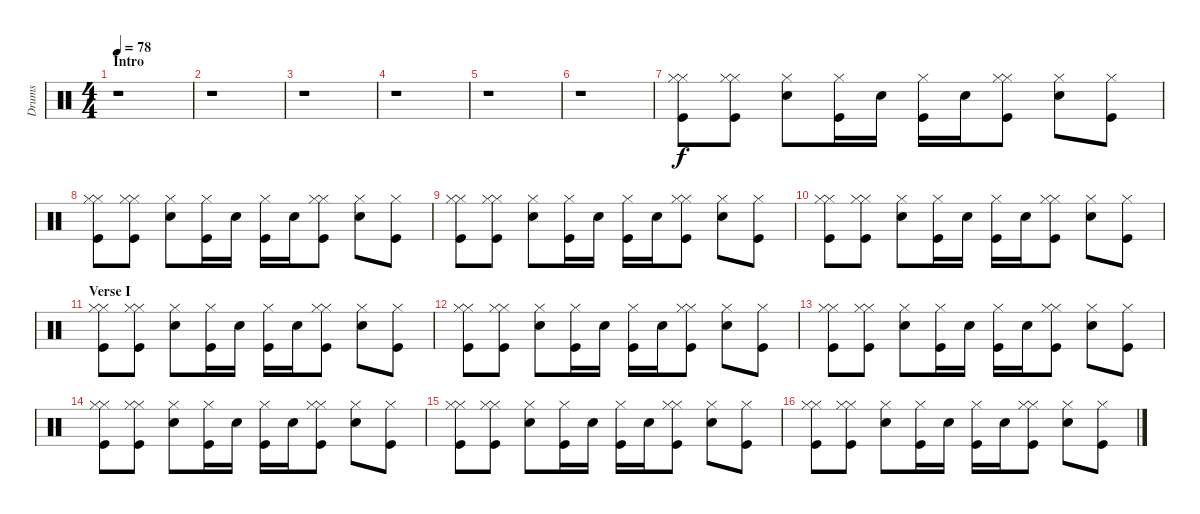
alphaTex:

\track ("Drums" "Drums") {instrument percussion}
\staff {score}
\articulation defaults
\ts (4 4)
\section ("" "Intro")
\tempo 78
\clef neutral
\ks c
r.1{dy f} |
r.1 |
r.1 |
r.1 |
r.1 |
r.1 |
("Hi-Hat (closed)" "Hi-Hat (closed)" "Kick (hit)").8 ("Hi-Hat (closed)" "Hi-Hat (closed)" "Kick (hit)").8 ("Snare (hit) 2" "Hi-Hat (closed)").8 ("Hi-Hat (closed)" "Kick (hit)").16 "Snare (hit) 2".16 ("Hi-Hat (closed)" "Kick (hit)").16 "Snare (hit) 2".16 ("Hi-Hat (closed)" "Hi-Hat (closed)" "Kick (hit)").8 ("Snare (hit) 2" "Hi-Hat (closed)").8 ("Hi-Hat (closed)" "Kick (hit)").8 |
("Hi-Hat (closed)" "Hi-Hat (closed)" "Kick (hit)").8 ("Hi-Hat (closed)" "Hi-Hat (closed)" "Kick (hit)").8 ("Snare (hit) 2" "Hi-Hat (closed)").8 ("Hi-Hat (closed)" "Kick (hit)").16 "Snare (hit) 2".16 ("Hi-Hat (closed)" "Kick (hit)").16 "Snare (hit) 2".16 ("Hi-Hat (closed)" "Hi-Hat (closed)" "Kick (hit)").8 ("Snare (hit) 2" "Hi-Hat (closed)").8 ("Hi-Hat (closed)" "Kick (hit)").8 |
("Hi-Hat (closed)" "Hi-Hat (closed)" "Kick (hit)").8 ("Hi-Hat (closed)" "Hi-Hat (closed)" "Kick (hit)").8 ("Snare (hit) 2" "Hi-Hat (closed)").8 ("Hi-Hat (closed)" "Kick (hit)").16 "Snare (hit) 2".16 ("Hi-Hat (closed)" "Kick (hit)").16 "Snare (hit) 2".16 ("Hi-Hat (closed)" "Hi-Hat (closed)" "Kick (hit)").8 ("Snare (hit) 2" "Hi-Hat (closed)").8 ("Hi-Hat (closed)" "Kick (hit)").8 |
("Hi-Hat (closed)" "Hi-Hat (closed)" "Kick (hit)").8 ("Hi-Hat (closed)" "Hi-Hat (closed)" "Kick (hit)").8 ("Snare (hit) 2" "Hi-Hat (closed)").8 ("Hi-Hat (closed)" "Kick (hit)").16 "Snare (hit) 2".16 ("Hi-Hat (closed)" "Kick (hit)").16 "Snare (hit) 2".16 ("Hi-Hat (closed)" "Hi-Hat (closed)" "Kick (hit)").8 ("Snare (hit) 2" "Hi-Hat (closed)").8 ("Hi-Hat (closed)" "Kick (hit)").8 |
\section ("" "Verse I")
("Hi-Hat (closed)" "Hi-Hat (closed)" "Kick (hit)").8 ("Hi-Hat (closed)" "Hi-Hat (closed)" "Kick (hit)").8 ("Snare (hit) 2" "Hi-Hat (closed)").8 ("Hi-Hat (closed)" "Kick (hit)").16 "Snare (hit) 2".16 ("Hi-Hat (closed)" "Kick (hit)").16 "Snare (hit) 2".16 ("Hi-Hat (closed)" "Hi-Hat (closed)" "Kick (hit)").8 ("Snare (hit) 2" "Hi-Hat (closed)").8 ("Hi-Hat (closed)" "Kick (hit)").8 |
("Hi-Hat (closed)" "Hi-Hat (closed)" "Kick (hit)").8 ("Hi-Hat (closed)" "Hi-Hat (closed)" "Kick (hit)").8 ("Snare (hit) 2" "Hi-Hat (closed)").8 ("Hi-Hat (closed)" "Kick (hit)").16 "Snare (hit) 2".16 ("Hi-Hat (closed)" "Kick (hit)").16 "Snare (hit) 2".16 ("Hi-Hat (closed)" "Hi-Hat (closed)" "Kick (hit)").8 ("Snare (hit) 2" "Hi-Hat (closed)").8 ("Hi-Hat (closed)" "Kick (hit)").8 |
("Hi-Hat (closed)" "Hi-Hat (closed)" "Kick (hit)").8 ("Hi-Hat (closed)" "Hi-Hat (closed)" "Kick (hit)").8 ("Snare (hit) 2" "Hi-Hat (closed)").8 ("Hi-Hat (closed)" "Kick (hit)").16 "Snare (hit) 2".16 ("Hi-Hat (closed)" "Kick (hit)").16 "Snare (hit) 2".16 ("Hi-Hat (closed)" "Hi-Hat (closed)" "Kick (hit)").8 ("Snare (hit) 2" "Hi-Hat (closed)").8 ("Hi-Hat (closed)" "Kick (hit)").8 |
("Hi-Hat (closed)" "Hi-Hat (closed)" "Kick (hit)").8 ("Hi-Hat (closed)" "Hi-Hat (closed)" "Kick (hit)").8 ("Snare (hit) 2" "Hi-Hat (closed)").8 ("Hi-Hat (closed)" "Kick (hit)").16 "Snare (hit) 2".16 ("Hi-Hat (closed)" "Kick (hit)").16 "Snare (hit) 2".16 ("Hi-Hat (closed)" "Hi-Hat (closed)" "Kick (hit)").8 ("Snare (hit) 2" "Hi-Hat (closed)").8 ("Hi-Hat (closed)" "Kick (hit)").8 |
("Hi-Hat (closed)" "Hi-Hat (closed)" "Kick (hit)").8 ("Hi-Hat (closed)" "Hi-Hat (closed)" "Kick (hit)").8 ("Snare (hit) 2" "Hi-Hat (closed)").8 ("Hi-Hat (closed)" "Kick (hit)").16 "Snare (hit) 2".16 ("Hi-Hat (closed)" "Kick (hit)").16 "Snare (hit) 2".16 ("Hi-Hat (closed)" "Hi-Hat (closed)" "Kick (hit)").8 ("Snare (hit) 2" "Hi-Hat (closed)").8 ("Hi-Hat (closed)" "Kick (hit)").8 |
("Hi-Hat (closed)" "Hi-Hat (closed)" "Kick (hit)").8 ("Hi-Hat (closed)" "Hi-Hat (closed)" "Kick (hit)").8 ("Snare (hit) 2" "Hi-Hat (closed)").8 ("Hi-Hat (closed)" "Kick (hit)").16 "Snare (hit) 2".16 ("Hi-Hat (closed)" "Kick (hit)").16 "Snare (hit) 2".16 ("Hi-Hat (closed)" "Hi-Hat (closed)" "Kick (hit)").8 ("Snare (hit) 2" "Hi-Hat (closed)").8 ("Hi-Hat (closed)" "Kick (hit)").8
